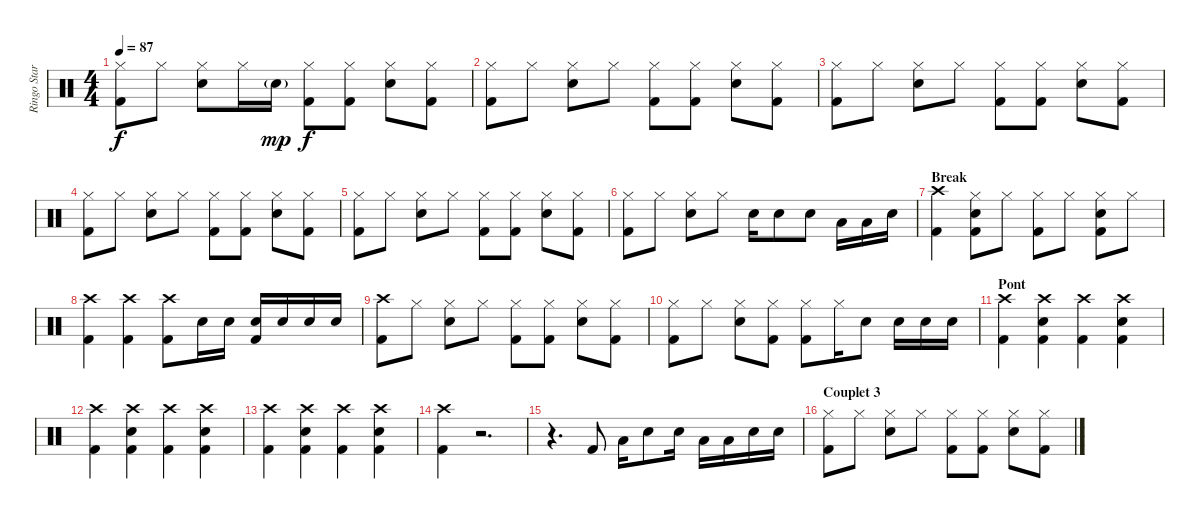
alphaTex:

\track ("Ringo Starr (Batterie)" "Ringo Star") {instrument percussion}
\staff {score}
\articulation defaults
\ts (4 4)
\tempo 87
\clef neutral
\ks c
("Hi-Hat (closed)" "Kick (hit) 2").8{dy f} "Hi-Hat (closed)".8 ("Hi-Hat (closed)" "Snare (hit) 2").8 "Hi-Hat (closed)".16 "Snare (hit) 2"{g}.16{dy mp} ("Hi-Hat (closed)" "Kick (hit) 2").8{dy f} ("Hi-Hat (closed)" "Kick (hit) 2").8 ("Hi-Hat (closed)" "Snare (hit) 2").8 ("Hi-Hat (closed)" "Kick (hit) 2").8 |
("Hi-Hat (closed)" "Kick (hit) 2").8 "Hi-Hat (closed)".8 ("Hi-Hat (closed)" "Snare (hit) 2").8 "Hi-Hat (closed)".8 ("Hi-Hat (closed)" "Kick (hit) 2").8 ("Hi-Hat (closed)" "Kick (hit) 2").8 ("Hi-Hat (closed)" "Snare (hit) 2").8 ("Hi-Hat (closed)" "Kick (hit) 2").8 |
("Hi-Hat (closed)" "Kick (hit) 2").8 "Hi-Hat (closed)".8 ("Hi-Hat (closed)" "Snare (hit) 2").8 "Hi-Hat (closed)".8 ("Hi-Hat (closed)" "Kick (hit) 2").8 ("Hi-Hat (closed)" "Kick (hit) 2").8 ("Hi-Hat (closed)" "Snare (hit) 2").8 ("Hi-Hat (closed)" "Kick (hit) 2").8 |
("Hi-Hat (closed)" "Kick (hit) 2").8 "Hi-Hat (closed)".8 ("Hi-Hat (closed)" "Snare (hit) 2").8 "Hi-Hat (closed)".8 ("Hi-Hat (closed)" "Kick (hit) 2").8 ("Hi-Hat (closed)" "Kick (hit) 2").8 ("Hi-Hat (closed)" "Snare (hit) 2").8 ("Hi-Hat (closed)" "Kick (hit) 2").8 |
("Hi-Hat (closed)" "Kick (hit) 2").8 "Hi-Hat (closed)".8 ("Hi-Hat (closed)" "Snare (hit) 2").8 "Hi-Hat (closed)".8 ("Hi-Hat (closed)" "Kick (hit) 2").8 ("Hi-Hat (closed)" "Kick (hit) 2").8 ("Hi-Hat (closed)" "Snare (hit) 2").8 ("Hi-Hat (closed)" "Kick (hit) 2").8 |
("Hi-Hat (closed)" "Kick (hit) 2").8 "Hi-Hat (closed)".8 ("Hi-Hat (closed)" "Snare (hit) 2").8 "Hi-Hat (closed)".8 "Snare (hit) 2".16 "Snare (hit) 2".8 "Snare (hit) 2".8 "Low Tom (hit)".16 "Low Tom (hit)".16 "Snare (hit) 2".16 |
\section ("" "Break")
("Crash high (hit)" "Kick (hit) 2").4 ("Hi-Hat (closed)" "Snare (hit) 2" "Kick (hit) 2").8 "Hi-Hat (closed)".8 ("Hi-Hat (closed)" "Kick (hit) 2").8 "Hi-Hat (closed)".8 ("Hi-Hat (closed)" "Snare (hit) 2" "Kick (hit) 2").8 "Hi-Hat (closed)".8 |
("Crash high (hit)" "Kick (hit) 2").4 ("Crash high (hit)" "Kick (hit) 2").4 ("Crash high (hit)" "Kick (hit) 2").8 "Snare (hit) 2".16 "Snare (hit) 2".16 ("Snare (hit) 2" "Kick (hit) 2").16 "Snare (hit) 2".16 "Snare (hit) 2".16 "Snare (hit) 2".16 |
("Crash high (hit)" "Kick (hit) 2").8 "Hi-Hat (closed)".8 ("Hi-Hat (closed)" "Snare (hit) 2").8 "Hi-Hat (closed)".8 ("Hi-Hat (closed)" "Kick (hit) 2").8 ("Hi-Hat (closed)" "Kick (hit) 2").8 ("Hi-Hat (closed)" "Snare (hit) 2").8 ("Hi-Hat (closed)" "Kick (hit) 2").8 |
("Hi-Hat (closed)" "Kick (hit) 2").8 "Hi-Hat (closed)".8 ("Hi-Hat (closed)" "Snare (hit) 2").8 ("Hi-Hat (closed)" "Kick (hit) 2").8 ("Hi-Hat (closed)" "Kick (hit) 2").8 "Hi-Hat (closed)".16 "Snare (hit) 2".8 "Snare (hit) 2".16 "Snare (hit) 2".16 "Snare (hit) 2".16 |
\section ("" "Pont")
("Crash high (hit)" "Kick (hit) 2").4 ("Crash high (hit)" "Snare (hit) 2" "Kick (hit) 2").4 ("Crash high (hit)" "Kick (hit) 2").4 ("Crash high (hit)" "Snare (hit) 2" "Kick (hit) 2").4 |
("Crash high (hit)" "Kick (hit) 2").4 ("Crash high (hit)" "Snare (hit) 2" "Kick (hit) 2").4 ("Crash high (hit)" "Kick (hit) 2").4 ("Crash high (hit)" "Snare (hit) 2" "Kick (hit) 2").4 |
("Crash high (hit)" "Kick (hit) 2").4 ("Crash high (hit)" "Snare (hit) 2" "Kick (hit) 2").4 ("Crash high (hit)" "Kick (hit) 2").4 ("Crash high (hit)" "Snare (hit) 2" "Kick (hit) 2").4 |
("Crash high (hit)" "Kick (hit) 2").4 r.2{d} |
r.4{d} "Kick (hit) 2".8 "Low Tom (hit)".16 "Snare (hit) 2".8 "Snare (hit) 2".16 "Low Tom (hit)".16 "Low Tom (hit)".16 "Snare (hit) 2".16 "Snare (hit) 2".16 |
\section ("" "Couplet 3")
("Hi-Hat (closed)" "Kick (hit) 2").8 "Hi-Hat (closed)".8 ("Hi-Hat (closed)" "Snare (hit) 2").8 "Hi-Hat (closed)".8 ("Hi-Hat (closed)" "Kick (hit) 2").8 ("Hi-Hat (closed)" "Kick (hit) 2").8 ("Hi-Hat (closed)" "Snare (hit) 2").8 ("Hi-Hat (closed)" "Kick (hit) 2").8
